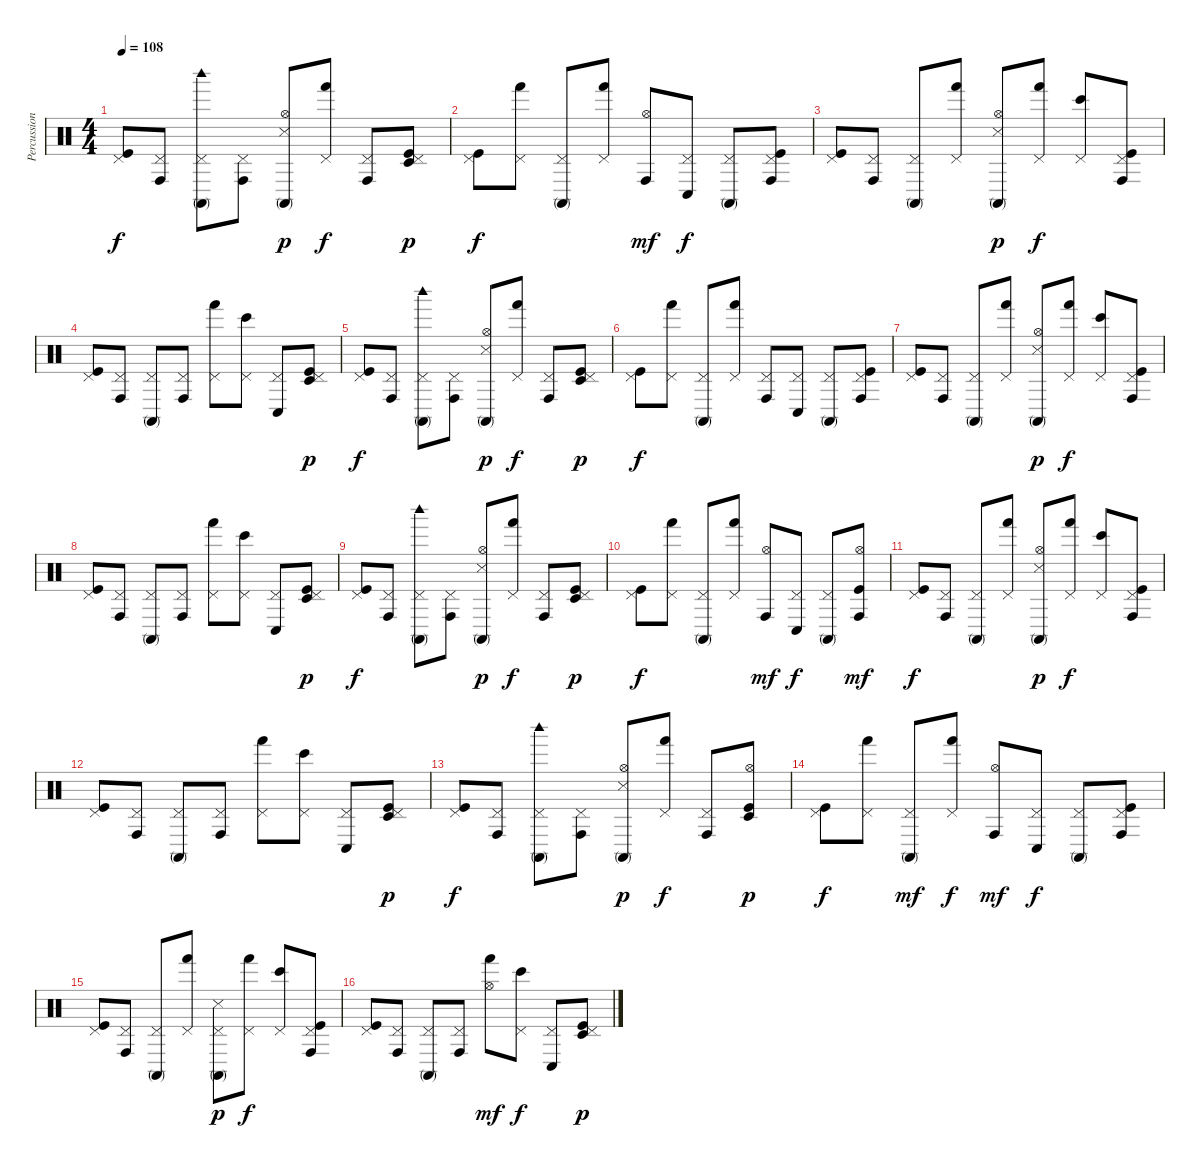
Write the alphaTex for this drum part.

\track ("Percussions" "Percussion") {instrument percussion}
\staff {score}
\articulation defaults
\ts (4 4)
\tempo 108
\clef neutral
\ks c
("Pedal Hi-Hat (hit)" "Kick (hit)").8{dy f} ("Pedal Hi-Hat (hit)" "Conga high (hit)").8 ("Pedal Hi-Hat (hit)" "Conga high (mute)" "Woodblock high (hit)").8 ("Pedal Hi-Hat (hit)" "Conga high (hit)").8 ("Hi-Hat (open)" "Snare (side stick) 3" "Conga high (mute)").8{dy p} ("Pedal Hi-Hat (hit)" "Hand (hit)").8{dy f} ("Pedal Hi-Hat (hit)" "Conga high (hit)").8 ("Pedal Hi-Hat (hit)" "Kick (hit)" "Timbale low (hit)").8{dy p} |
("Pedal Hi-Hat (hit)" "Kick (hit)").8{dy f} ("Pedal Hi-Hat (hit)" "Hand (hit)").8 ("Pedal Hi-Hat (hit)" "Conga high (mute)").8 ("Pedal Hi-Hat (hit)" "Hand (hit)").8 ("Hi-Hat (open)" "Conga high (hit)").8{dy mf} ("Pedal Hi-Hat (hit)" "Conga low (hit)").8{dy f} ("Pedal Hi-Hat (hit)" "Conga high (mute)").8 ("Pedal Hi-Hat (hit)" "Kick (hit)" "Conga high (hit)").8 |
("Pedal Hi-Hat (hit)" "Kick (hit)").8 ("Pedal Hi-Hat (hit)" "Conga high (hit)").8 ("Pedal Hi-Hat (hit)" "Conga high (mute)").8 ("Pedal Hi-Hat (hit)" "Hand (hit)").8 ("Hi-Hat (open)" "Conga high (mute)" "Snare (side stick) 3").8{dy p} ("Pedal Hi-Hat (hit)" "Hand (hit)").8{dy f} ("Pedal Hi-Hat (hit)" "Bongo High (hit)").8 ("Pedal Hi-Hat (hit)" "Conga high (hit)" "Kick (hit)").8 |
("Pedal Hi-Hat (hit)" "Kick (hit)").8 ("Pedal Hi-Hat (hit)" "Conga high (hit)").8 ("Pedal Hi-Hat (hit)" "Conga high (mute)").8 ("Pedal Hi-Hat (hit)" "Conga high (hit)").8 ("Pedal Hi-Hat (hit)" "Hand (hit)").8 ("Pedal Hi-Hat (hit)" "Bongo High (hit)").8 ("Pedal Hi-Hat (hit)" "Conga low (hit)").8 ("Pedal Hi-Hat (hit)" "Kick (hit)" "Timbale low (hit)").8{dy p} |
("Pedal Hi-Hat (hit)" "Kick (hit)").8{dy f} ("Pedal Hi-Hat (hit)" "Conga high (hit)").8 ("Pedal Hi-Hat (hit)" "Conga high (mute)" "Woodblock high (hit)").8 ("Pedal Hi-Hat (hit)" "Conga high (hit)").8 ("Hi-Hat (open)" "Snare (side stick) 3" "Conga high (mute)").8{dy p} ("Pedal Hi-Hat (hit)" "Hand (hit)").8{dy f} ("Pedal Hi-Hat (hit)" "Conga high (hit)").8 ("Pedal Hi-Hat (hit)" "Kick (hit)" "Timbale low (hit)").8{dy p} |
("Pedal Hi-Hat (hit)" "Kick (hit)").8{dy f} ("Pedal Hi-Hat (hit)" "Hand (hit)").8 ("Pedal Hi-Hat (hit)" "Conga high (mute)").8 ("Pedal Hi-Hat (hit)" "Hand (hit)").8 ("Pedal Hi-Hat (hit)" "Conga high (hit)").8 ("Pedal Hi-Hat (hit)" "Conga low (hit)").8 ("Pedal Hi-Hat (hit)" "Conga high (mute)").8 ("Pedal Hi-Hat (hit)" "Kick (hit)" "Conga high (hit)").8 |
("Pedal Hi-Hat (hit)" "Kick (hit)").8 ("Pedal Hi-Hat (hit)" "Conga high (hit)").8 ("Pedal Hi-Hat (hit)" "Conga high (mute)").8 ("Pedal Hi-Hat (hit)" "Hand (hit)").8 ("Hi-Hat (open)" "Conga high (mute)" "Snare (side stick) 3").8{dy p} ("Pedal Hi-Hat (hit)" "Hand (hit)").8{dy f} ("Pedal Hi-Hat (hit)" "Bongo High (hit)").8 ("Pedal Hi-Hat (hit)" "Conga high (hit)" "Kick (hit)").8 |
("Pedal Hi-Hat (hit)" "Kick (hit)").8 ("Pedal Hi-Hat (hit)" "Conga high (hit)").8 ("Pedal Hi-Hat (hit)" "Conga high (mute)").8 ("Pedal Hi-Hat (hit)" "Conga high (hit)").8 ("Pedal Hi-Hat (hit)" "Hand (hit)").8 ("Pedal Hi-Hat (hit)" "Bongo High (hit)").8 ("Pedal Hi-Hat (hit)" "Conga low (hit)").8 ("Pedal Hi-Hat (hit)" "Kick (hit)" "Timbale low (hit)").8{dy p} |
("Pedal Hi-Hat (hit)" "Kick (hit)").8{dy f} ("Pedal Hi-Hat (hit)" "Conga high (hit)").8 ("Pedal Hi-Hat (hit)" "Conga high (mute)" "Woodblock high (hit)").8 ("Pedal Hi-Hat (hit)" "Conga high (hit)").8 ("Hi-Hat (open)" "Snare (side stick) 3" "Conga high (mute)").8{dy p} ("Pedal Hi-Hat (hit)" "Hand (hit)").8{dy f} ("Pedal Hi-Hat (hit)" "Conga high (hit)").8 ("Pedal Hi-Hat (hit)" "Kick (hit)" "Timbale low (hit)").8{dy p} |
("Pedal Hi-Hat (hit)" "Kick (hit)").8{dy f} ("Pedal Hi-Hat (hit)" "Hand (hit)").8 ("Pedal Hi-Hat (hit)" "Conga high (mute)").8 ("Pedal Hi-Hat (hit)" "Hand (hit)").8 ("Hi-Hat (open)" "Conga high (hit)").8{dy mf} ("Pedal Hi-Hat (hit)" "Conga low (hit)").8{dy f} ("Pedal Hi-Hat (hit)" "Conga high (mute)").8 ("Hi-Hat (open)" "Kick (hit)" "Conga high (hit)").8{dy mf} |
("Pedal Hi-Hat (hit)" "Kick (hit)").8{dy f} ("Pedal Hi-Hat (hit)" "Conga high (hit)").8 ("Pedal Hi-Hat (hit)" "Conga high (mute)").8 ("Pedal Hi-Hat (hit)" "Hand (hit)").8 ("Hi-Hat (open)" "Conga high (mute)" "Snare (side stick) 3").8{dy p} ("Pedal Hi-Hat (hit)" "Hand (hit)").8{dy f} ("Pedal Hi-Hat (hit)" "Bongo High (hit)").8 ("Pedal Hi-Hat (hit)" "Conga high (hit)" "Kick (hit)").8 |
("Pedal Hi-Hat (hit)" "Kick (hit)").8 ("Pedal Hi-Hat (hit)" "Conga high (hit)").8 ("Pedal Hi-Hat (hit)" "Conga high (mute)").8 ("Pedal Hi-Hat (hit)" "Conga high (hit)").8 ("Pedal Hi-Hat (hit)" "Hand (hit)").8 ("Pedal Hi-Hat (hit)" "Bongo High (hit)").8 ("Pedal Hi-Hat (hit)" "Conga low (hit)").8 ("Pedal Hi-Hat (hit)" "Kick (hit)" "Timbale low (hit)").8{dy p} |
("Pedal Hi-Hat (hit)" "Kick (hit)").8{dy f} ("Pedal Hi-Hat (hit)" "Conga high (hit)").8 ("Pedal Hi-Hat (hit)" "Conga high (mute)" "Woodblock high (hit)").8 ("Pedal Hi-Hat (hit)" "Conga high (hit)").8 ("Hi-Hat (open)" "Snare (side stick) 3" "Conga high (mute)").8{dy p} ("Pedal Hi-Hat (hit)" "Hand (hit)").8{dy f} ("Pedal Hi-Hat (hit)" "Conga high (hit)").8 ("Hi-Hat (open)" "Kick (hit)" "Timbale low (hit)").8{dy p} |
("Pedal Hi-Hat (hit)" "Kick (hit)").8{dy f} ("Pedal Hi-Hat (hit)" "Hand (hit)").8 ("Pedal Hi-Hat (hit)" "Conga high (mute)").8{dy mf} ("Pedal Hi-Hat (hit)" "Hand (hit)").8{dy f} ("Hi-Hat (open)" "Conga high (hit)").8{dy mf} ("Pedal Hi-Hat (hit)" "Conga low (hit)").8{dy f} ("Pedal Hi-Hat (hit)" "Conga high (mute)").8 ("Pedal Hi-Hat (hit)" "Kick (hit)" "Conga high (hit)").8 |
("Pedal Hi-Hat (hit)" "Kick (hit)").8 ("Pedal Hi-Hat (hit)" "Conga high (hit)").8 ("Pedal Hi-Hat (hit)" "Conga high (mute)").8 ("Pedal Hi-Hat (hit)" "Hand (hit)").8 ("Pedal Hi-Hat (hit)" "Conga high (mute)" "Snare (side stick) 3").8{dy p} ("Pedal Hi-Hat (hit)" "Hand (hit)").8{dy f} ("Pedal Hi-Hat (hit)" "Bongo High (hit)").8 ("Pedal Hi-Hat (hit)" "Conga high (hit)" "Kick (hit)").8 |
("Pedal Hi-Hat (hit)" "Kick (hit)").8 ("Pedal Hi-Hat (hit)" "Conga high (hit)").8 ("Pedal Hi-Hat (hit)" "Conga high (mute)").8 ("Pedal Hi-Hat (hit)" "Conga high (hit)").8 ("Hi-Hat (open)" "Hand (hit)").8{dy mf} ("Pedal Hi-Hat (hit)" "Bongo High (hit)").8{dy f} ("Pedal Hi-Hat (hit)" "Conga low (hit)").8 ("Pedal Hi-Hat (hit)" "Kick (hit)" "Timbale low (hit)").8{dy p}
